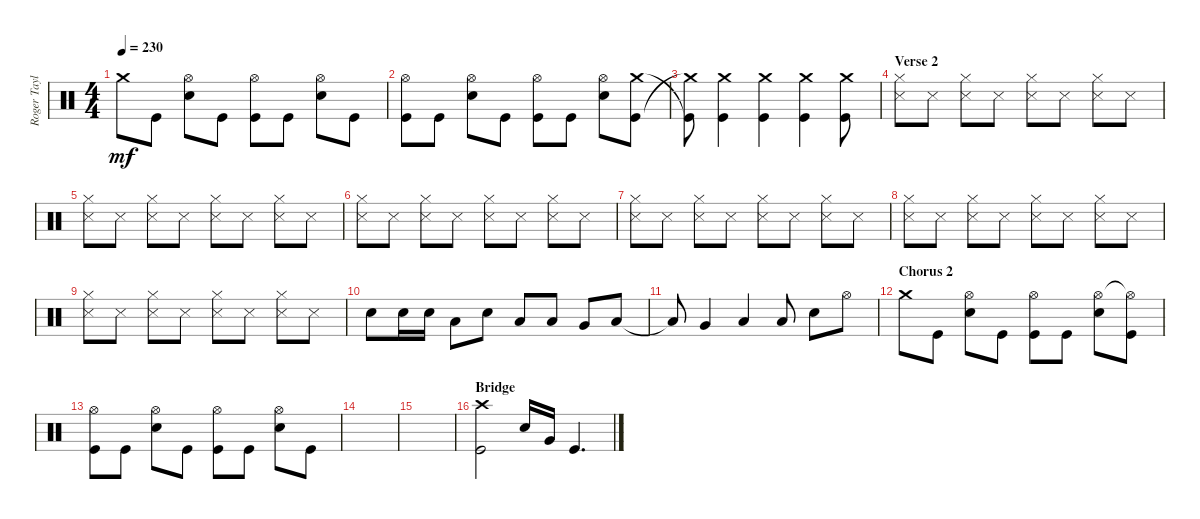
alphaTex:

\track ("Roger Taylor" "Roger Tayl") {instrument percussion}
\staff {score}
\articulation defaults
\ts (4 4)
\tempo 230
\clef neutral
\ks c "Crash medium (hit)"{t}.8{dy mf} "Kick (hit)".8
("Snare (hit) 2" "Hi-Hat (open)").8 "Kick (hit)".8 ("Kick (hit)" "Hi-Hat (open)").8 "Kick (hit)".8 ("Snare (hit) 2" "Hi-Hat (open)").8 "Kick (hit)".8 |
("Hi-Hat (open)" "Kick (hit)").8 "Kick (hit)".8 ("Snare (hit) 2" "Hi-Hat (open)").8 "Kick (hit)".8 ("Kick (hit)" "Hi-Hat (open)").8 "Kick (hit)".8 ("Snare (hit) 2" "Hi-Hat (open)").8 ("Kick (hit)" "Crash medium (hit)").8 |
("Crash medium (hit)"{t} "Kick (hit)"{t}).8 ("Crash medium (hit)" "Kick (hit)").4 ("Crash medium (hit)" "Kick (hit)").4 ("Crash medium (hit)" "Kick (hit)").4 ("Crash medium (hit)" "Kick (hit)").8 |
\section ("" "Verse 2")
("Snare (side stick) 3" "Hi-Hat (closed)").8 "Snare (side stick) 3".8 ("Snare (side stick) 3" "Hi-Hat (closed)").8 "Snare (side stick) 3".8 ("Snare (side stick) 3" "Hi-Hat (closed)").8 "Snare (side stick) 3".8 ("Snare (side stick) 3" "Hi-Hat (closed)").8 "Snare (side stick) 3".8 |
("Snare (side stick) 3" "Hi-Hat (closed)").8 "Snare (side stick) 3".8 ("Snare (side stick) 3" "Hi-Hat (closed)").8 "Snare (side stick) 3".8 ("Snare (side stick) 3" "Hi-Hat (closed)").8 "Snare (side stick) 3".8 ("Snare (side stick) 3" "Hi-Hat (closed)").8 "Snare (side stick) 3".8 |
("Snare (side stick) 3" "Hi-Hat (closed)").8 "Snare (side stick) 3".8 ("Snare (side stick) 3" "Hi-Hat (closed)").8 "Snare (side stick) 3".8 ("Snare (side stick) 3" "Hi-Hat (closed)").8 "Snare (side stick) 3".8 ("Snare (side stick) 3" "Hi-Hat (closed)").8 "Snare (side stick) 3".8 |
("Snare (side stick) 3" "Hi-Hat (closed)").8 "Snare (side stick) 3".8 ("Snare (side stick) 3" "Hi-Hat (closed)").8 "Snare (side stick) 3".8 ("Snare (side stick) 3" "Hi-Hat (closed)").8 "Snare (side stick) 3".8 ("Snare (side stick) 3" "Hi-Hat (closed)").8 "Snare (side stick) 3".8 |
("Snare (side stick) 3" "Hi-Hat (closed)").8 "Snare (side stick) 3".8 ("Snare (side stick) 3" "Hi-Hat (closed)").8 "Snare (side stick) 3".8 ("Snare (side stick) 3" "Hi-Hat (closed)").8 "Snare (side stick) 3".8 ("Snare (side stick) 3" "Hi-Hat (closed)").8 "Snare (side stick) 3".8 |
("Snare (side stick) 3" "Hi-Hat (closed)").8 "Snare (side stick) 3".8 ("Snare (side stick) 3" "Hi-Hat (closed)").8 "Snare (side stick) 3".8 ("Snare (side stick) 3" "Hi-Hat (closed)").8 "Snare (side stick) 3".8 ("Snare (side stick) 3" "Hi-Hat (closed)").8 "Snare (side stick) 3".8 |
"Snare (hit) 2".8 "Snare (hit) 2".16 "Snare (hit) 2".16 "Low Tom (hit)".8 "Snare (hit) 2".8 "Low Tom (hit)".8 "Low Tom (hit)".8 "Very Low Tom (hit)".8 "Low Floor Tom (hit)".8 |
"Low Floor Tom (hit)"{t}.8 "Very Low Tom (hit)".4 "Low Tom (hit)".4 "Low Tom (hit)".8 "Snare (hit) 2".8 "Hi-Hat (open)".8 |
\section ("" "Chorus 2")
"Crash medium (hit)".8 "Kick (hit)".8 ("Snare (hit) 2" "Hi-Hat (open)").8 "Kick (hit)".8 ("Kick (hit)" "Hi-Hat (open)").8 "Kick (hit)".8 ("Snare (hit) 2" "Hi-Hat (open)").8 ("Kick (hit)" "Hi-Hat (open)"{t}).8 |
("Hi-Hat (open)" "Kick (hit)").8 "Kick (hit)".8 ("Snare (hit) 2" "Hi-Hat (open)").8 "Kick (hit)".8 ("Kick (hit)" "Hi-Hat (open)").8 "Kick (hit)".8 ("Snare (hit) 2" "Hi-Hat (open)").8 "Kick (hit)".8 |
|
|
\section ("" "Bridge")
("Crash high (hit)" "Kick (hit)").2 "Snare (hit) 2".16 "Very Low Tom (hit)".16 "Kick (hit)".4{d}
